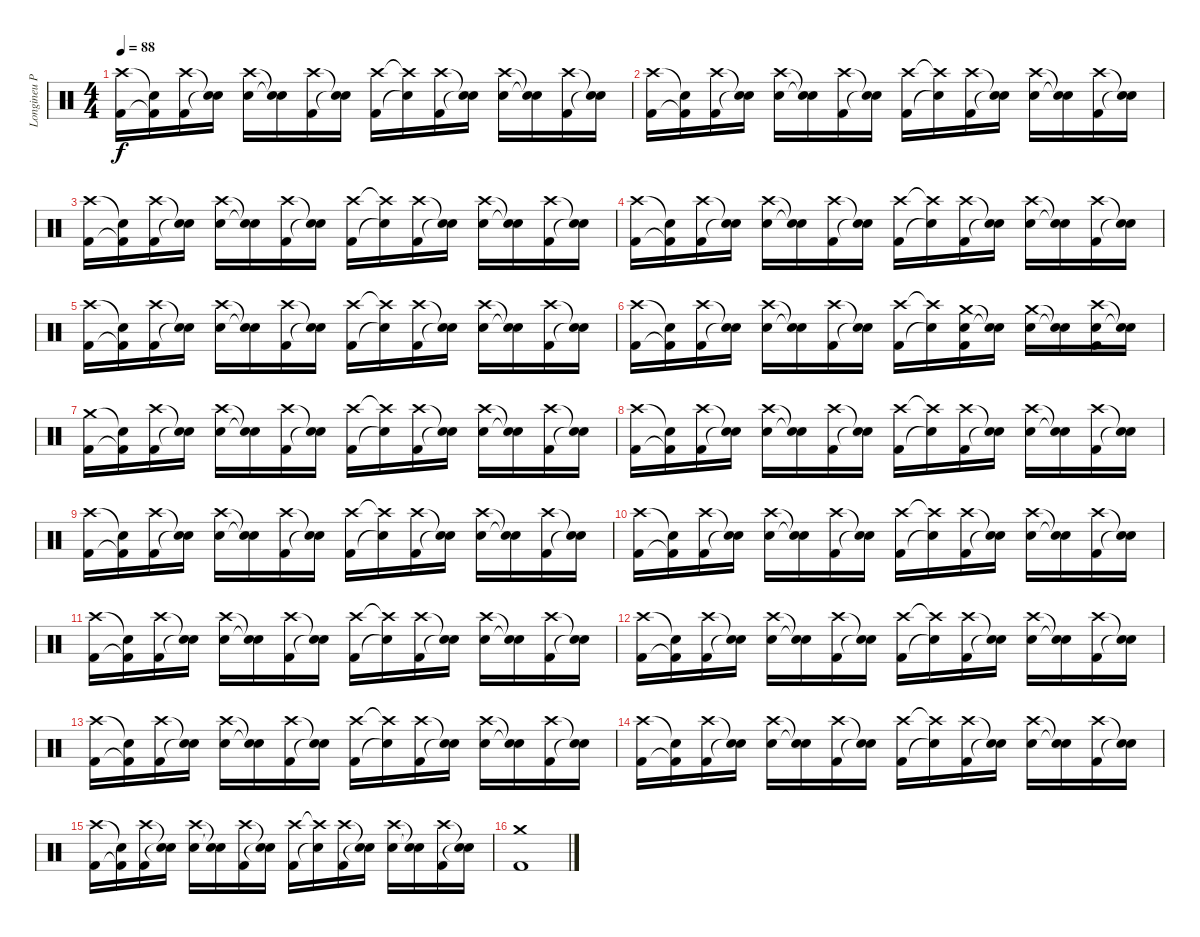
\track ("Longineu Parsons ||| (Drums)" "Longineu P") {instrument percussion}
\staff {score}
\articulation defaults
\ts (4 4)
\tempo 88
\clef neutral
\ks c
("Crash high (hit)" "Kick (hit) 2").16{dy f} ("Snare (hit)"{t} "Kick (hit) 2"{t}).16 ("Crash high (hit)" "Kick (hit) 2").16 ("Snare (hit)"{t} "Snare (hit)"{t}).16 ("Crash high (hit)" "Electric Snare (hit)").16 ("Snare (hit)"{t} "Snare (hit)"{t}).16 ("Crash high (hit)" "Kick (hit) 2").16 ("Snare (hit)"{t} "Snare (hit)"{t}).16 ("Crash high (hit)" "Kick (hit) 2").16 ("Crash high (hit)"{t} "Snare (hit)"{t}).16 ("Crash high (hit)" "Kick (hit) 2").16 ("Snare (hit)"{t} "Snare (hit)"{t}).16 ("Crash high (hit)" "Electric Snare (hit)").16 ("Snare (hit)"{t} "Snare (hit)"{t}).16 ("Crash high (hit)" "Kick (hit) 2").16 ("Snare (hit)"{t} "Snare (hit)"{t}).16 |
("Crash high (hit)" "Kick (hit) 2").16 ("Snare (hit)"{t} "Kick (hit) 2"{t}).16 ("Crash high (hit)" "Kick (hit) 2").16 ("Snare (hit)"{t} "Snare (hit)"{t}).16 ("Crash high (hit)" "Electric Snare (hit)").16 ("Snare (hit)"{t} "Snare (hit)"{t}).16 ("Crash high (hit)" "Kick (hit) 2").16 ("Snare (hit)"{t} "Snare (hit)"{t}).16 ("Crash high (hit)" "Kick (hit) 2").16 ("Crash high (hit)"{t} "Snare (hit)"{t}).16 ("Crash high (hit)" "Kick (hit) 2").16 ("Snare (hit)"{t} "Snare (hit)"{t}).16 ("Crash high (hit)" "Electric Snare (hit)").16 ("Snare (hit)"{t} "Snare (hit)"{t}).16 ("Crash high (hit)" "Kick (hit) 2").16 ("Snare (hit)"{t} "Snare (hit)"{t}).16 |
("Crash high (hit)" "Kick (hit) 2").16 ("Snare (hit)"{t} "Kick (hit) 2"{t}).16 ("Crash high (hit)" "Kick (hit) 2").16 ("Snare (hit)"{t} "Snare (hit)"{t}).16 ("Crash high (hit)" "Electric Snare (hit)").16 ("Snare (hit)"{t} "Snare (hit)"{t}).16 ("Crash high (hit)" "Kick (hit) 2").16 ("Snare (hit)"{t} "Snare (hit)"{t}).16 ("Crash high (hit)" "Kick (hit) 2").16 ("Crash high (hit)"{t} "Snare (hit)"{t}).16 ("Crash high (hit)" "Kick (hit) 2").16 ("Snare (hit)"{t} "Snare (hit)"{t}).16 ("Crash high (hit)" "Electric Snare (hit)").16 ("Snare (hit)"{t} "Snare (hit)"{t}).16 ("Crash high (hit)" "Kick (hit) 2").16 ("Snare (hit)"{t} "Snare (hit)"{t}).16 |
("Crash high (hit)" "Kick (hit) 2").16 ("Snare (hit)"{t} "Kick (hit) 2"{t}).16 ("Crash high (hit)" "Kick (hit) 2").16 ("Snare (hit)"{t} "Snare (hit)"{t}).16 ("Crash high (hit)" "Electric Snare (hit)").16 ("Snare (hit)"{t} "Snare (hit)"{t}).16 ("Crash high (hit)" "Kick (hit) 2").16 ("Snare (hit)"{t} "Snare (hit)"{t}).16 ("Crash high (hit)" "Kick (hit) 2").16 ("Crash high (hit)"{t} "Snare (hit)"{t}).16 ("Crash high (hit)" "Kick (hit) 2").16 ("Snare (hit)"{t} "Snare (hit)"{t}).16 ("Crash high (hit)" "Electric Snare (hit)").16 ("Snare (hit)"{t} "Snare (hit)"{t}).16 ("Crash high (hit)" "Kick (hit) 2").16 ("Snare (hit)"{t} "Snare (hit)"{t}).16 |
("Crash high (hit)" "Kick (hit) 2").16 ("Snare (hit)"{t} "Kick (hit) 2"{t}).16 ("Crash high (hit)" "Kick (hit) 2").16 ("Snare (hit)"{t} "Snare (hit)"{t}).16 ("Crash high (hit)" "Electric Snare (hit)").16 ("Snare (hit)"{t} "Snare (hit)"{t}).16 ("Crash high (hit)" "Kick (hit) 2").16 ("Snare (hit)"{t} "Snare (hit)"{t}).16 ("Crash high (hit)" "Kick (hit) 2").16 ("Crash high (hit)"{t} "Snare (hit)"{t}).16 ("Crash high (hit)" "Kick (hit) 2").16 ("Snare (hit)"{t} "Snare (hit)"{t}).16 ("Crash high (hit)" "Electric Snare (hit)").16 ("Snare (hit)"{t} "Snare (hit)"{t}).16 ("Crash high (hit)" "Kick (hit) 2").16 ("Snare (hit)"{t} "Snare (hit)"{t}).16 |
("Crash high (hit)" "Kick (hit) 2").16 ("Snare (hit)"{t} "Kick (hit) 2"{t}).16 ("Crash high (hit)" "Kick (hit) 2").16 ("Snare (hit)"{t} "Snare (hit)"{t}).16 ("Crash high (hit)" "Electric Snare (hit)").16 ("Snare (hit)"{t} "Snare (hit)"{t}).16 ("Crash high (hit)" "Kick (hit) 2").16 ("Snare (hit)"{t} "Snare (hit)"{t}).16 ("Crash high (hit)" "Kick (hit) 2").16 ("Crash high (hit)"{t} "Snare (hit)"{t}).16 ("Crash medium (hit)" "Electric Snare (hit)" "Kick (hit) 2").16 ("Snare (hit)"{t} "Snare (hit)"{t}).16 ("Crash medium (hit)" "Electric Snare (hit)").16 ("Snare (hit)"{t} "Snare (hit)"{t}).16 ("Crash high (hit)" "Electric Snare (hit)" "Kick (hit) 2").16 ("Snare (hit)"{t} "Snare (hit)"{t}).16 |
("Crash medium (hit)" "Kick (hit) 2").16 ("Snare (hit)"{t} "Kick (hit) 2"{t}).16 ("Crash high (hit)" "Kick (hit) 2").16 ("Snare (hit)"{t} "Snare (hit)"{t}).16 ("Crash high (hit)" "Electric Snare (hit)").16 ("Snare (hit)"{t} "Snare (hit)"{t}).16 ("Crash high (hit)" "Kick (hit) 2").16 ("Snare (hit)"{t} "Snare (hit)"{t}).16 ("Crash high (hit)" "Kick (hit) 2").16 ("Crash high (hit)"{t} "Snare (hit)"{t}).16 ("Crash high (hit)" "Kick (hit) 2").16 ("Snare (hit)"{t} "Snare (hit)"{t}).16 ("Crash high (hit)" "Electric Snare (hit)").16 ("Snare (hit)"{t} "Snare (hit)"{t}).16 ("Crash high (hit)" "Kick (hit) 2").16 ("Snare (hit)"{t} "Snare (hit)"{t}).16 |
("Crash high (hit)" "Kick (hit) 2").16 ("Snare (hit)"{t} "Kick (hit) 2"{t}).16 ("Crash high (hit)" "Kick (hit) 2").16 ("Snare (hit)"{t} "Snare (hit)"{t}).16 ("Crash high (hit)" "Electric Snare (hit)").16 ("Snare (hit)"{t} "Snare (hit)"{t}).16 ("Crash high (hit)" "Kick (hit) 2").16 ("Snare (hit)"{t} "Snare (hit)"{t}).16 ("Crash high (hit)" "Kick (hit) 2").16 ("Crash high (hit)"{t} "Snare (hit)"{t}).16 ("Crash high (hit)" "Kick (hit) 2").16 ("Snare (hit)"{t} "Snare (hit)"{t}).16 ("Crash high (hit)" "Electric Snare (hit)").16 ("Snare (hit)"{t} "Snare (hit)"{t}).16 ("Crash high (hit)" "Kick (hit) 2").16 ("Snare (hit)"{t} "Snare (hit)"{t}).16 |
("Crash high (hit)" "Kick (hit) 2").16 ("Snare (hit)"{t} "Kick (hit) 2"{t}).16 ("Crash high (hit)" "Kick (hit) 2").16 ("Snare (hit)"{t} "Snare (hit)"{t}).16 ("Crash high (hit)" "Electric Snare (hit)").16 ("Snare (hit)"{t} "Snare (hit)"{t}).16 ("Crash high (hit)" "Kick (hit) 2").16 ("Snare (hit)"{t} "Snare (hit)"{t}).16 ("Crash high (hit)" "Kick (hit) 2").16 ("Crash high (hit)"{t} "Snare (hit)"{t}).16 ("Crash high (hit)" "Kick (hit) 2").16 ("Snare (hit)"{t} "Snare (hit)"{t}).16 ("Crash high (hit)" "Electric Snare (hit)").16 ("Snare (hit)"{t} "Snare (hit)"{t}).16 ("Crash high (hit)" "Kick (hit) 2").16 ("Snare (hit)"{t} "Snare (hit)"{t}).16 |
("Crash high (hit)" "Kick (hit) 2").16 ("Snare (hit)"{t} "Kick (hit) 2"{t}).16 ("Crash high (hit)" "Kick (hit) 2").16 ("Snare (hit)"{t} "Snare (hit)"{t}).16 ("Crash high (hit)" "Electric Snare (hit)").16 ("Snare (hit)"{t} "Snare (hit)"{t}).16 ("Crash high (hit)" "Kick (hit) 2").16 ("Snare (hit)"{t} "Snare (hit)"{t}).16 ("Crash high (hit)" "Kick (hit) 2").16 ("Crash high (hit)"{t} "Snare (hit)"{t}).16 ("Crash high (hit)" "Kick (hit) 2").16 ("Snare (hit)"{t} "Snare (hit)"{t}).16 ("Crash high (hit)" "Electric Snare (hit)").16 ("Snare (hit)"{t} "Snare (hit)"{t}).16 ("Crash high (hit)" "Kick (hit) 2").16 ("Snare (hit)"{t} "Snare (hit)"{t}).16 |
("Crash high (hit)" "Kick (hit) 2").16 ("Snare (hit)"{t} "Kick (hit) 2"{t}).16 ("Crash high (hit)" "Kick (hit) 2").16 ("Snare (hit)"{t} "Snare (hit)"{t}).16 ("Crash high (hit)" "Electric Snare (hit)").16 ("Snare (hit)"{t} "Snare (hit)"{t}).16 ("Crash high (hit)" "Kick (hit) 2").16 ("Snare (hit)"{t} "Snare (hit)"{t}).16 ("Crash high (hit)" "Kick (hit) 2").16 ("Crash high (hit)"{t} "Snare (hit)"{t}).16 ("Crash high (hit)" "Kick (hit) 2").16 ("Snare (hit)"{t} "Snare (hit)"{t}).16 ("Crash high (hit)" "Electric Snare (hit)").16 ("Snare (hit)"{t} "Snare (hit)"{t}).16 ("Crash high (hit)" "Kick (hit) 2").16 ("Snare (hit)"{t} "Snare (hit)"{t}).16 |
("Crash high (hit)" "Kick (hit) 2").16 ("Snare (hit)"{t} "Kick (hit) 2"{t}).16 ("Crash high (hit)" "Kick (hit) 2").16 ("Snare (hit)"{t} "Snare (hit)"{t}).16 ("Crash high (hit)" "Electric Snare (hit)").16 ("Snare (hit)"{t} "Snare (hit)"{t}).16 ("Crash high (hit)" "Kick (hit) 2").16 ("Snare (hit)"{t} "Snare (hit)"{t}).16 ("Crash high (hit)" "Kick (hit) 2").16 ("Crash high (hit)"{t} "Snare (hit)"{t}).16 ("Crash high (hit)" "Kick (hit) 2").16 ("Snare (hit)"{t} "Snare (hit)"{t}).16 ("Crash high (hit)" "Electric Snare (hit)").16 ("Snare (hit)"{t} "Snare (hit)"{t}).16 ("Crash high (hit)" "Kick (hit) 2").16 ("Snare (hit)"{t} "Snare (hit)"{t}).16 |
("Crash high (hit)" "Kick (hit) 2").16{volume 5} ("Snare (hit)"{t} "Kick (hit) 2"{t}).16 ("Crash high (hit)" "Kick (hit) 2").16 ("Snare (hit)"{t} "Snare (hit)"{t}).16 ("Crash high (hit)" "Electric Snare (hit)").16 ("Snare (hit)"{t} "Snare (hit)"{t}).16 ("Crash high (hit)" "Kick (hit) 2").16 ("Snare (hit)"{t} "Snare (hit)"{t}).16 ("Crash high (hit)" "Kick (hit) 2").16 ("Crash high (hit)"{t} "Snare (hit)"{t}).16 ("Crash high (hit)" "Kick (hit) 2").16 ("Snare (hit)"{t} "Snare (hit)"{t}).16 ("Crash high (hit)" "Electric Snare (hit)").16 ("Snare (hit)"{t} "Snare (hit)"{t}).16 ("Crash high (hit)" "Kick (hit) 2").16 ("Snare (hit)"{t} "Snare (hit)"{t}).16 |
("Crash high (hit)" "Kick (hit) 2").16 ("Snare (hit)"{t} "Kick (hit) 2"{t}).16 ("Crash high (hit)" "Kick (hit) 2").16 ("Snare (hit)"{t} "Snare (hit)"{t}).16 ("Crash high (hit)" "Electric Snare (hit)").16 ("Snare (hit)"{t} "Snare (hit)"{t}).16 ("Crash high (hit)" "Kick (hit) 2").16 ("Snare (hit)"{t} "Snare (hit)"{t}).16 ("Crash high (hit)" "Kick (hit) 2").16 ("Crash high (hit)"{t} "Snare (hit)"{t}).16 ("Crash high (hit)" "Kick (hit) 2").16 ("Snare (hit)"{t} "Snare (hit)"{t}).16 ("Crash high (hit)" "Electric Snare (hit)").16 ("Snare (hit)"{t} "Snare (hit)"{t}).16 ("Crash high (hit)" "Kick (hit) 2").16 ("Snare (hit)"{t} "Snare (hit)"{t}).16 |
("Crash high (hit)" "Kick (hit) 2").16 ("Snare (hit)"{t} "Kick (hit) 2"{t}).16 ("Crash high (hit)" "Kick (hit) 2").16 ("Snare (hit)"{t} "Snare (hit)"{t}).16 ("Crash high (hit)" "Electric Snare (hit)").16 ("Snare (hit)"{t} "Snare (hit)"{t}).16 ("Crash high (hit)" "Kick (hit) 2").16 ("Snare (hit)"{t} "Snare (hit)"{t}).16 ("Crash high (hit)" "Kick (hit) 2").16 ("Crash high (hit)"{t} "Snare (hit)"{t}).16 ("Crash high (hit)" "Kick (hit) 2").16 ("Snare (hit)"{t} "Snare (hit)"{t}).16 ("Crash high (hit)" "Electric Snare (hit)").16 ("Snare (hit)"{t} "Snare (hit)"{t}).16 ("Crash high (hit)" "Kick (hit) 2").16 ("Snare (hit)"{t} "Snare (hit)"{t}).16 |
("Crash medium (hit)" "Kick (hit) 2").1
